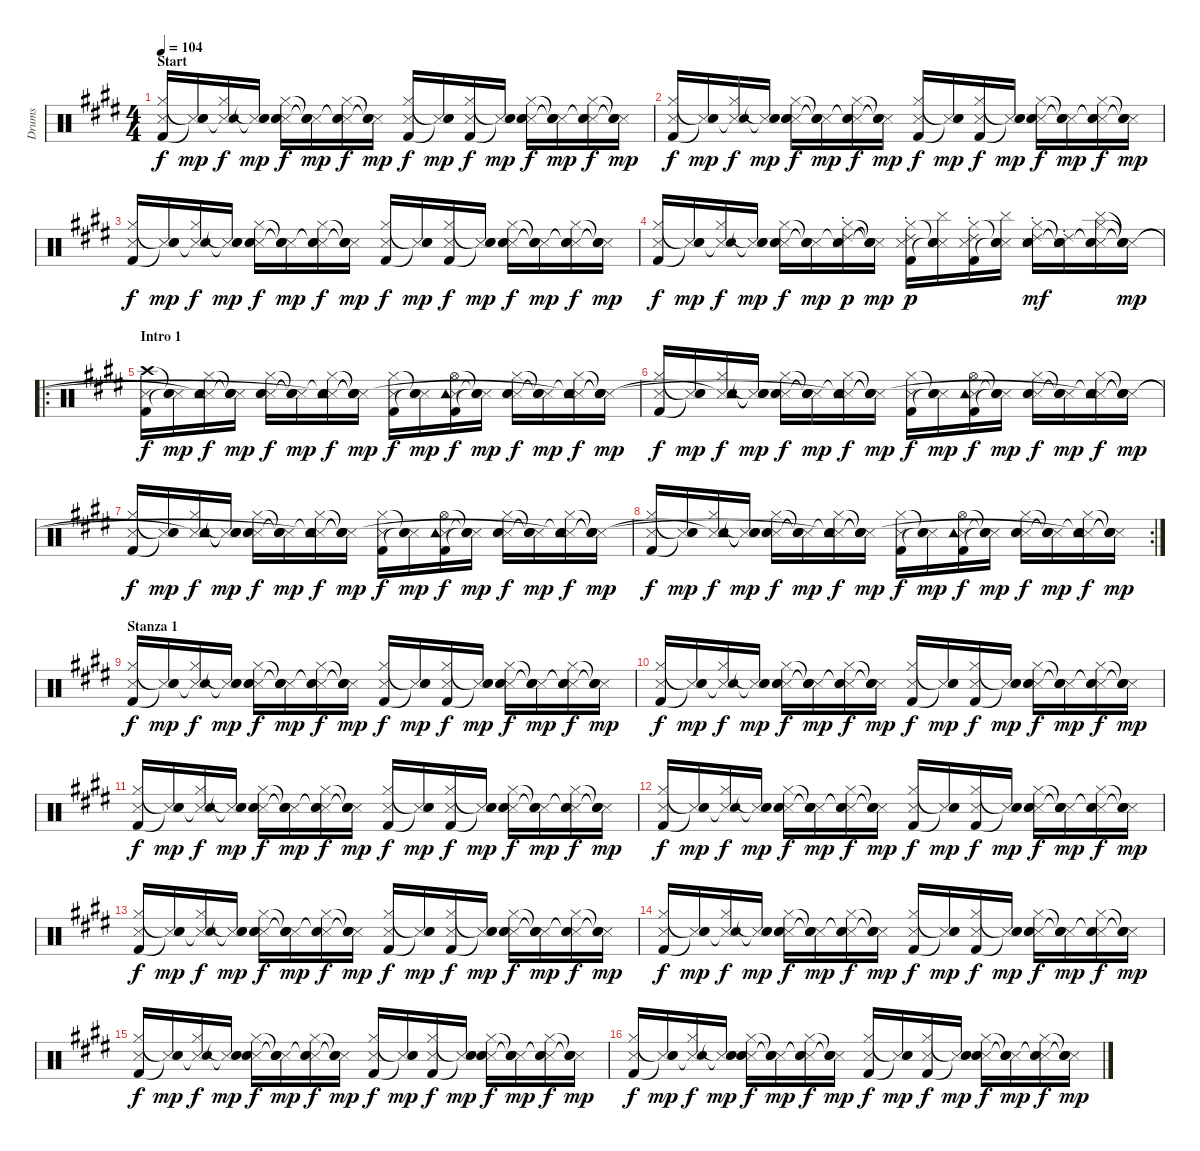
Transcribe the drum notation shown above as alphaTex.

\track ("Drums" "Drums") {instrument percussion}
\staff {score}
\articulation defaults
\ts (4 4)
\section ("" "Start")
\tempo 104
\clef neutral
\ks e
("Metronome (hit)" "Hi-Hat (closed)" "Kick (hit) 2").16{dy f} ("Metronome (hit)" "Snare (hit)"{t} "Snare (hit)"{t}).16{dy mp} ("Metronome (hit)" "Hi-Hat (closed)" "Snare (hit)"{t}).16{dy f} ("Metronome (hit)" "Snare (hit)"{t} "Snare (hit)"{t}).16{dy mp} ("Metronome (hit)" "Hi-Hat (closed)" "Hand Clap (hit)" "Electric Snare (hit)").16{dy f} ("Metronome (hit)" "Snare (hit)"{t} "Snare (hit)"{t} "Snare (hit)"{t}).16{dy mp} ("Metronome (hit)" "Hi-Hat (closed)" "Snare (hit)"{t} "Snare (hit)"{t}).16{dy f} ("Metronome (hit)" "Snare (hit)"{t} "Snare (hit)"{t} "Snare (hit)"{t}).16{dy mp} ("Metronome (hit)" "Hi-Hat (closed)" "Kick (hit) 2").16{dy f} ("Metronome (hit)" "Snare (hit)"{t} "Snare (hit)"{t}).16{dy mp} ("Metronome (hit)" "Hi-Hat (closed)" "Kick (hit) 2").16{dy f} ("Metronome (hit)" "Snare (hit)"{t} "Snare (hit)"{t}).16{dy mp} ("Metronome (hit)" "Hi-Hat (closed)" "Hand Clap (hit)" "Electric Snare (hit)").16{dy f} ("Metronome (hit)" "Snare (hit)"{t} "Snare (hit)"{t} "Snare (hit)"{t}).16{dy mp} ("Metronome (hit)" "Hi-Hat (closed)" "Snare (hit)"{t} "Snare (hit)"{t}).16{dy f} ("Metronome (hit)" "Snare (hit)"{t} "Snare (hit)"{t} "Snare (hit)"{t}).16{dy mp} |
("Metronome (hit)" "Hi-Hat (closed)" "Kick (hit) 2").16{dy f} ("Metronome (hit)" "Snare (hit)"{t} "Snare (hit)"{t}).16{dy mp} ("Metronome (hit)" "Hi-Hat (closed)" "Snare (hit)"{t}).16{dy f} ("Metronome (hit)" "Snare (hit)"{t} "Snare (hit)"{t}).16{dy mp} ("Metronome (hit)" "Hi-Hat (closed)" "Hand Clap (hit)" "Electric Snare (hit)").16{dy f} ("Metronome (hit)" "Snare (hit)"{t} "Snare (hit)"{t} "Snare (hit)"{t}).16{dy mp} ("Metronome (hit)" "Hi-Hat (closed)" "Snare (hit)"{t} "Snare (hit)"{t}).16{dy f} ("Metronome (hit)" "Snare (hit)"{t} "Snare (hit)"{t} "Snare (hit)"{t}).16{dy mp} ("Metronome (hit)" "Hi-Hat (closed)" "Kick (hit) 2").16{dy f} ("Metronome (hit)" "Snare (hit)"{t} "Snare (hit)"{t}).16{dy mp} ("Metronome (hit)" "Hi-Hat (closed)" "Kick (hit) 2").16{dy f} ("Metronome (hit)" "Snare (hit)"{t} "Snare (hit)"{t}).16{dy mp} ("Metronome (hit)" "Hi-Hat (closed)" "Hand Clap (hit)" "Electric Snare (hit)").16{dy f} ("Metronome (hit)" "Snare (hit)"{t} "Snare (hit)"{t} "Snare (hit)"{t}).16{dy mp} ("Metronome (hit)" "Hi-Hat (closed)" "Snare (hit)"{t} "Snare (hit)"{t}).16{dy f} ("Metronome (hit)" "Snare (hit)"{t} "Snare (hit)"{t} "Snare (hit)"{t}).16{dy mp} |
("Metronome (hit)" "Hi-Hat (closed)" "Kick (hit) 2").16{dy f} ("Metronome (hit)" "Snare (hit)"{t} "Snare (hit)"{t}).16{dy mp} ("Metronome (hit)" "Hi-Hat (closed)" "Snare (hit)"{t}).16{dy f} ("Metronome (hit)" "Snare (hit)"{t} "Snare (hit)"{t}).16{dy mp} ("Metronome (hit)" "Hi-Hat (closed)" "Hand Clap (hit)" "Electric Snare (hit)").16{dy f} ("Metronome (hit)" "Snare (hit)"{t} "Snare (hit)"{t} "Snare (hit)"{t}).16{dy mp} ("Metronome (hit)" "Hi-Hat (closed)" "Snare (hit)"{t} "Snare (hit)"{t}).16{dy f} ("Metronome (hit)" "Snare (hit)"{t} "Snare (hit)"{t} "Snare (hit)"{t}).16{dy mp} ("Metronome (hit)" "Hi-Hat (closed)" "Kick (hit) 2").16{dy f} ("Metronome (hit)" "Snare (hit)"{t} "Snare (hit)"{t}).16{dy mp} ("Metronome (hit)" "Hi-Hat (closed)" "Kick (hit) 2").16{dy f} ("Metronome (hit)" "Snare (hit)"{t} "Snare (hit)"{t}).16{dy mp} ("Metronome (hit)" "Hi-Hat (closed)" "Hand Clap (hit)" "Electric Snare (hit)").16{dy f} ("Metronome (hit)" "Snare (hit)"{t} "Snare (hit)"{t} "Snare (hit)"{t}).16{dy mp} ("Metronome (hit)" "Hi-Hat (closed)" "Snare (hit)"{t} "Snare (hit)"{t}).16{dy f} ("Metronome (hit)" "Snare (hit)"{t} "Snare (hit)"{t} "Snare (hit)"{t}).16{dy mp} |
("Metronome (hit)" "Hi-Hat (closed)" "Kick (hit) 2").16{dy f} ("Metronome (hit)" "Snare (hit)"{t} "Snare (hit)"{t}).16{dy mp} ("Metronome (hit)" "Hi-Hat (closed)" "Snare (hit)"{t}).16{dy f} ("Metronome (hit)" "Snare (hit)"{t} "Snare (hit)"{t}).16{dy mp} ("Metronome (hit)" "Hi-Hat (closed)" "Hand Clap (hit)" "Electric Snare (hit)").16{dy f} ("Metronome (hit)" "Snare (hit)"{t} "Snare (hit)"{t} "Snare (hit)"{t}).16{dy mp} ("Metronome (hit)" "Hi-Hat (closed)" "Ride (choke) 2" "Snare (hit)"{t} "Snare (hit)").16{dy p} ("Metronome (hit)" "Snare (hit)"{t} "Snare (hit)"{t} "Snare (hit)"{t} "Snare (hit)"{t}).16{dy mp} ("Metronome (hit)" "Hi-Hat (closed)" "Ride (choke) 2" "Kick (hit) 2").16{dy p} ("Metronome (hit)" "Snare (hit)"{t} "Cymbal (hit)" "Snare (hit)"{t}).16 ("Metronome (hit)" "Hi-Hat (closed)" "Ride (choke) 2" "Kick (hit) 2").16 ("Metronome (hit)" "Snare (hit)"{t} "Cymbal (hit)" "Snare (hit)"{t}).16 ("Metronome (hit)" "Hi-Hat (closed)" "Ride (choke) 2" "Hand Clap (hit)" "Electric Snare (hit)").16{dy mf} ("Metronome (hit)" "Snare (hit)"{t} "Ride (choke) 2" "Snare (hit)"{t} "Snare (hit)"{t}).16 ("Metronome (hit)" "Hi-Hat (closed)" "Cymbal (hit)" "Snare (hit)"{t} "Snare (hit)"{t}).16 ("Metronome (hit)" "Snare (hit)"{t} "Snare (hit)"{t} "Snare (hit)"{t} "Snare (hit)"{t}).16{dy mp} |
\ro
\section ("" "Intro 1")
("Metronome (hit)" "Crash high (hit)" "Kick (hit) 2").16{dy f} ("Metronome (hit)" "Snare (hit)"{t} "Snare (hit)"{t}).16{dy mp} ("Metronome (hit)" "Hi-Hat (closed)" "Tambourine (hit)" "Snare (hit)"{t}).16{dy f} ("Metronome (hit)" "Snare (hit)"{t} "Snare (hit)"{t} "Snare (hit)"{t}).16{dy mp} ("Metronome (hit)" "Hi-Hat (closed)" "Hand Clap (hit)" "Electric Snare (hit)").16{dy f} ("Metronome (hit)" "Snare (hit)"{t} "Snare (hit)"{t} "Snare (hit)"{t}).16{dy mp} ("Metronome (hit)" "Hi-Hat (closed)" "Tambourine (hit)" "Snare (hit)"{t} "Snare (hit)"{t}).16{dy f} ("Metronome (hit)" "Snare (hit)"{t} "Snare (hit)"{t} "Snare (hit)"{t} "Snare (hit)"{t}).16{dy mp} ("Metronome (hit)" "Hi-Hat (closed)" "Kick (hit) 2").16{dy f} ("Metronome (hit)" "Snare (hit)"{t} "Snare (hit)"{t}).16{dy mp} ("Metronome (hit)" "Hi-Hat (open)" "Tambourine (hit)" "Kick (hit) 2").16{dy f} ("Metronome (hit)" "Snare (hit)"{t} "Snare (hit)"{t} "Snare (hit)"{t}).16{dy mp} ("Metronome (hit)" "Hi-Hat (closed)" "Hand Clap (hit)" "Electric Snare (hit)").16{dy f} ("Metronome (hit)" "Snare (hit)"{t} "Snare (hit)"{t} "Snare (hit)"{t}).16{dy mp} ("Metronome (hit)" "Hi-Hat (closed)" "Tambourine (hit)" "Snare (hit)"{t} "Snare (hit)"{t}).16{dy f} ("Metronome (hit)" "Snare (hit)"{t} "Snare (hit)"{t} "Snare (hit)"{t} "Snare (hit)"{t}).16{dy mp} |
("Metronome (hit)" "Hi-Hat (closed)" "Kick (hit) 2").16{dy f} ("Metronome (hit)" "Snare (hit)"{t} "Snare (hit)"{t}).16{dy mp} ("Metronome (hit)" "Hi-Hat (closed)" "Tambourine (hit)" "Snare (hit)"{t}).16{dy f} ("Metronome (hit)" "Snare (hit)"{t} "Snare (hit)"{t} "Snare (hit)"{t}).16{dy mp} ("Metronome (hit)" "Hi-Hat (closed)" "Hand Clap (hit)" "Electric Snare (hit)").16{dy f} ("Metronome (hit)" "Snare (hit)"{t} "Snare (hit)"{t} "Snare (hit)"{t}).16{dy mp} ("Metronome (hit)" "Hi-Hat (closed)" "Tambourine (hit)" "Snare (hit)"{t} "Snare (hit)"{t}).16{dy f} ("Metronome (hit)" "Snare (hit)"{t} "Snare (hit)"{t} "Snare (hit)"{t} "Snare (hit)"{t}).16{dy mp} ("Metronome (hit)" "Hi-Hat (closed)" "Kick (hit) 2").16{dy f} ("Metronome (hit)" "Snare (hit)"{t} "Snare (hit)"{t}).16{dy mp} ("Metronome (hit)" "Hi-Hat (open)" "Tambourine (hit)" "Kick (hit) 2").16{dy f} ("Metronome (hit)" "Snare (hit)"{t} "Snare (hit)"{t} "Snare (hit)"{t}).16{dy mp} ("Metronome (hit)" "Hi-Hat (closed)" "Hand Clap (hit)" "Electric Snare (hit)").16{dy f} ("Metronome (hit)" "Snare (hit)"{t} "Snare (hit)"{t} "Snare (hit)"{t}).16{dy mp} ("Metronome (hit)" "Hi-Hat (closed)" "Tambourine (hit)" "Snare (hit)"{t} "Snare (hit)"{t}).16{dy f} ("Metronome (hit)" "Snare (hit)"{t} "Snare (hit)"{t} "Snare (hit)"{t} "Snare (hit)"{t}).16{dy mp} |
("Metronome (hit)" "Hi-Hat (closed)" "Kick (hit) 2").16{dy f} ("Metronome (hit)" "Snare (hit)"{t} "Snare (hit)"{t}).16{dy mp} ("Metronome (hit)" "Hi-Hat (closed)" "Tambourine (hit)" "Snare (hit)"{t}).16{dy f} ("Metronome (hit)" "Snare (hit)"{t} "Snare (hit)"{t} "Snare (hit)"{t}).16{dy mp} ("Metronome (hit)" "Hi-Hat (closed)" "Hand Clap (hit)" "Electric Snare (hit)").16{dy f} ("Metronome (hit)" "Snare (hit)"{t} "Snare (hit)"{t} "Snare (hit)"{t}).16{dy mp} ("Metronome (hit)" "Hi-Hat (closed)" "Tambourine (hit)" "Snare (hit)"{t} "Snare (hit)"{t}).16{dy f} ("Metronome (hit)" "Snare (hit)"{t} "Snare (hit)"{t} "Snare (hit)"{t} "Snare (hit)"{t}).16{dy mp} ("Metronome (hit)" "Hi-Hat (closed)" "Kick (hit) 2").16{dy f} ("Metronome (hit)" "Snare (hit)"{t} "Snare (hit)"{t}).16{dy mp} ("Metronome (hit)" "Hi-Hat (open)" "Tambourine (hit)" "Kick (hit) 2").16{dy f} ("Metronome (hit)" "Snare (hit)"{t} "Snare (hit)"{t} "Snare (hit)"{t}).16{dy mp} ("Metronome (hit)" "Hi-Hat (closed)" "Hand Clap (hit)" "Electric Snare (hit)").16{dy f} ("Metronome (hit)" "Snare (hit)"{t} "Snare (hit)"{t} "Snare (hit)"{t}).16{dy mp} ("Metronome (hit)" "Hi-Hat (closed)" "Tambourine (hit)" "Snare (hit)"{t} "Snare (hit)"{t}).16{dy f} ("Metronome (hit)" "Snare (hit)"{t} "Snare (hit)"{t} "Snare (hit)"{t} "Snare (hit)"{t}).16{dy mp} |
\rc 2
("Metronome (hit)" "Hi-Hat (closed)" "Kick (hit) 2").16{dy f} ("Metronome (hit)" "Snare (hit)"{t} "Snare (hit)"{t}).16{dy mp} ("Metronome (hit)" "Hi-Hat (closed)" "Tambourine (hit)" "Snare (hit)"{t}).16{dy f} ("Metronome (hit)" "Snare (hit)"{t} "Snare (hit)"{t} "Snare (hit)"{t}).16{dy mp} ("Metronome (hit)" "Hi-Hat (closed)" "Hand Clap (hit)" "Electric Snare (hit)").16{dy f} ("Metronome (hit)" "Snare (hit)"{t} "Snare (hit)"{t} "Snare (hit)"{t}).16{dy mp} ("Metronome (hit)" "Hi-Hat (closed)" "Tambourine (hit)" "Snare (hit)"{t} "Snare (hit)"{t}).16{dy f} ("Metronome (hit)" "Snare (hit)"{t} "Snare (hit)"{t} "Snare (hit)"{t} "Snare (hit)"{t}).16{dy mp} ("Metronome (hit)" "Hi-Hat (closed)" "Kick (hit) 2").16{dy f} ("Metronome (hit)" "Snare (hit)"{t} "Snare (hit)"{t}).16{dy mp} ("Metronome (hit)" "Hi-Hat (open)" "Tambourine (hit)" "Kick (hit) 2").16{dy f} ("Metronome (hit)" "Snare (hit)"{t} "Snare (hit)"{t} "Snare (hit)"{t}).16{dy mp} ("Metronome (hit)" "Hi-Hat (closed)" "Hand Clap (hit)" "Electric Snare (hit)").16{dy f} ("Metronome (hit)" "Snare (hit)"{t} "Snare (hit)"{t} "Snare (hit)"{t}).16{dy mp} ("Metronome (hit)" "Hi-Hat (closed)" "Tambourine (hit)" "Snare (hit)"{t} "Snare (hit)"{t}).16{dy f} ("Metronome (hit)" "Snare (hit)"{t} "Snare (hit)"{t} "Snare (hit)"{t} "Snare (hit)"{t}).16{dy mp} |
\section ("" "Stanza 1")
("Metronome (hit)" "Hi-Hat (closed)" "Kick (hit) 2").16{dy f} ("Metronome (hit)" "Snare (hit)"{t} "Snare (hit)"{t}).16{dy mp} ("Metronome (hit)" "Hi-Hat (closed)" "Snare (hit)"{t}).16{dy f} ("Metronome (hit)" "Snare (hit)"{t} "Snare (hit)"{t}).16{dy mp} ("Metronome (hit)" "Hi-Hat (closed)" "Hand Clap (hit)" "Electric Snare (hit)").16{dy f} ("Metronome (hit)" "Snare (hit)"{t} "Snare (hit)"{t} "Snare (hit)"{t}).16{dy mp} ("Metronome (hit)" "Hi-Hat (closed)" "Snare (hit)"{t} "Snare (hit)"{t}).16{dy f} ("Metronome (hit)" "Snare (hit)"{t} "Snare (hit)"{t} "Snare (hit)"{t}).16{dy mp} ("Metronome (hit)" "Hi-Hat (closed)" "Kick (hit) 2").16{dy f} ("Metronome (hit)" "Snare (hit)"{t} "Snare (hit)"{t}).16{dy mp} ("Metronome (hit)" "Hi-Hat (closed)" "Kick (hit) 2").16{dy f} ("Metronome (hit)" "Snare (hit)"{t} "Snare (hit)"{t}).16{dy mp} ("Metronome (hit)" "Hi-Hat (closed)" "Hand Clap (hit)" "Electric Snare (hit)").16{dy f} ("Metronome (hit)" "Snare (hit)"{t} "Snare (hit)"{t} "Snare (hit)"{t}).16{dy mp} ("Metronome (hit)" "Hi-Hat (closed)" "Snare (hit)"{t} "Snare (hit)"{t}).16{dy f} ("Metronome (hit)" "Snare (hit)"{t} "Snare (hit)"{t} "Snare (hit)"{t}).16{dy mp} |
("Metronome (hit)" "Hi-Hat (closed)" "Kick (hit) 2").16{dy f} ("Metronome (hit)" "Snare (hit)"{t} "Snare (hit)"{t}).16{dy mp} ("Metronome (hit)" "Hi-Hat (closed)" "Snare (hit)"{t}).16{dy f} ("Metronome (hit)" "Snare (hit)"{t} "Snare (hit)"{t}).16{dy mp} ("Metronome (hit)" "Hi-Hat (closed)" "Hand Clap (hit)" "Electric Snare (hit)").16{dy f} ("Metronome (hit)" "Snare (hit)"{t} "Snare (hit)"{t} "Snare (hit)"{t}).16{dy mp} ("Metronome (hit)" "Hi-Hat (closed)" "Snare (hit)"{t} "Snare (hit)"{t}).16{dy f} ("Metronome (hit)" "Snare (hit)"{t} "Snare (hit)"{t} "Snare (hit)"{t}).16{dy mp} ("Metronome (hit)" "Hi-Hat (closed)" "Kick (hit) 2").16{dy f} ("Metronome (hit)" "Snare (hit)"{t} "Snare (hit)"{t}).16{dy mp} ("Metronome (hit)" "Hi-Hat (closed)" "Kick (hit) 2").16{dy f} ("Metronome (hit)" "Snare (hit)"{t} "Snare (hit)"{t}).16{dy mp} ("Metronome (hit)" "Hi-Hat (closed)" "Hand Clap (hit)" "Electric Snare (hit)").16{dy f} ("Metronome (hit)" "Snare (hit)"{t} "Snare (hit)"{t} "Snare (hit)"{t}).16{dy mp} ("Metronome (hit)" "Hi-Hat (closed)" "Snare (hit)"{t} "Snare (hit)"{t}).16{dy f} ("Metronome (hit)" "Snare (hit)"{t} "Snare (hit)"{t} "Snare (hit)"{t}).16{dy mp} |
("Metronome (hit)" "Hi-Hat (closed)" "Kick (hit) 2").16{dy f} ("Metronome (hit)" "Snare (hit)"{t} "Snare (hit)"{t}).16{dy mp} ("Metronome (hit)" "Hi-Hat (closed)" "Snare (hit)"{t}).16{dy f} ("Metronome (hit)" "Snare (hit)"{t} "Snare (hit)"{t}).16{dy mp} ("Metronome (hit)" "Hi-Hat (closed)" "Hand Clap (hit)" "Electric Snare (hit)").16{dy f} ("Metronome (hit)" "Snare (hit)"{t} "Snare (hit)"{t} "Snare (hit)"{t}).16{dy mp} ("Metronome (hit)" "Hi-Hat (closed)" "Snare (hit)"{t} "Snare (hit)"{t}).16{dy f} ("Metronome (hit)" "Snare (hit)"{t} "Snare (hit)"{t} "Snare (hit)"{t}).16{dy mp} ("Metronome (hit)" "Hi-Hat (closed)" "Kick (hit) 2").16{dy f} ("Metronome (hit)" "Snare (hit)"{t} "Snare (hit)"{t}).16{dy mp} ("Metronome (hit)" "Hi-Hat (closed)" "Kick (hit) 2").16{dy f} ("Metronome (hit)" "Snare (hit)"{t} "Snare (hit)"{t}).16{dy mp} ("Metronome (hit)" "Hi-Hat (closed)" "Hand Clap (hit)" "Electric Snare (hit)").16{dy f} ("Metronome (hit)" "Snare (hit)"{t} "Snare (hit)"{t} "Snare (hit)"{t}).16{dy mp} ("Metronome (hit)" "Hi-Hat (closed)" "Snare (hit)"{t} "Snare (hit)"{t}).16{dy f} ("Metronome (hit)" "Snare (hit)"{t} "Snare (hit)"{t} "Snare (hit)"{t}).16{dy mp} |
("Metronome (hit)" "Hi-Hat (closed)" "Kick (hit) 2").16{dy f} ("Metronome (hit)" "Snare (hit)"{t} "Snare (hit)"{t}).16{dy mp} ("Metronome (hit)" "Hi-Hat (closed)" "Snare (hit)"{t}).16{dy f} ("Metronome (hit)" "Snare (hit)"{t} "Snare (hit)"{t}).16{dy mp} ("Metronome (hit)" "Hi-Hat (closed)" "Hand Clap (hit)" "Electric Snare (hit)").16{dy f} ("Metronome (hit)" "Snare (hit)"{t} "Snare (hit)"{t} "Snare (hit)"{t}).16{dy mp} ("Metronome (hit)" "Hi-Hat (closed)" "Snare (hit)"{t} "Snare (hit)"{t}).16{dy f} ("Metronome (hit)" "Snare (hit)"{t} "Snare (hit)"{t} "Snare (hit)"{t}).16{dy mp} ("Metronome (hit)" "Hi-Hat (closed)" "Kick (hit) 2").16{dy f} ("Metronome (hit)" "Snare (hit)"{t} "Snare (hit)"{t}).16{dy mp} ("Metronome (hit)" "Hi-Hat (closed)" "Kick (hit) 2").16{dy f} ("Metronome (hit)" "Snare (hit)"{t} "Snare (hit)"{t}).16{dy mp} ("Metronome (hit)" "Hi-Hat (closed)" "Hand Clap (hit)" "Electric Snare (hit)").16{dy f} ("Metronome (hit)" "Snare (hit)"{t} "Snare (hit)"{t} "Snare (hit)"{t}).16{dy mp} ("Metronome (hit)" "Hi-Hat (closed)" "Snare (hit)"{t} "Snare (hit)"{t}).16{dy f} ("Metronome (hit)" "Snare (hit)"{t} "Snare (hit)"{t} "Snare (hit)"{t}).16{dy mp} |
("Metronome (hit)" "Hi-Hat (closed)" "Kick (hit) 2").16{dy f} ("Metronome (hit)" "Snare (hit)"{t} "Snare (hit)"{t}).16{dy mp} ("Metronome (hit)" "Hi-Hat (closed)" "Snare (hit)"{t}).16{dy f} ("Metronome (hit)" "Snare (hit)"{t} "Snare (hit)"{t}).16{dy mp} ("Metronome (hit)" "Hi-Hat (closed)" "Hand Clap (hit)" "Electric Snare (hit)").16{dy f} ("Metronome (hit)" "Snare (hit)"{t} "Snare (hit)"{t} "Snare (hit)"{t}).16{dy mp} ("Metronome (hit)" "Hi-Hat (closed)" "Snare (hit)"{t} "Snare (hit)"{t}).16{dy f} ("Metronome (hit)" "Snare (hit)"{t} "Snare (hit)"{t} "Snare (hit)"{t}).16{dy mp} ("Metronome (hit)" "Hi-Hat (closed)" "Kick (hit) 2").16{dy f} ("Metronome (hit)" "Snare (hit)"{t} "Snare (hit)"{t}).16{dy mp} ("Metronome (hit)" "Hi-Hat (closed)" "Kick (hit) 2").16{dy f} ("Metronome (hit)" "Snare (hit)"{t} "Snare (hit)"{t}).16{dy mp} ("Metronome (hit)" "Hi-Hat (closed)" "Hand Clap (hit)" "Electric Snare (hit)").16{dy f} ("Metronome (hit)" "Snare (hit)"{t} "Snare (hit)"{t} "Snare (hit)"{t}).16{dy mp} ("Metronome (hit)" "Hi-Hat (closed)" "Snare (hit)"{t} "Snare (hit)"{t}).16{dy f} ("Metronome (hit)" "Snare (hit)"{t} "Snare (hit)"{t} "Snare (hit)"{t}).16{dy mp} |
("Metronome (hit)" "Hi-Hat (closed)" "Kick (hit) 2").16{dy f} ("Metronome (hit)" "Snare (hit)"{t} "Snare (hit)"{t}).16{dy mp} ("Metronome (hit)" "Hi-Hat (closed)" "Snare (hit)"{t}).16{dy f} ("Metronome (hit)" "Snare (hit)"{t} "Snare (hit)"{t}).16{dy mp} ("Metronome (hit)" "Hi-Hat (closed)" "Hand Clap (hit)" "Electric Snare (hit)").16{dy f} ("Metronome (hit)" "Snare (hit)"{t} "Snare (hit)"{t} "Snare (hit)"{t}).16{dy mp} ("Metronome (hit)" "Hi-Hat (closed)" "Snare (hit)"{t} "Snare (hit)"{t}).16{dy f} ("Metronome (hit)" "Snare (hit)"{t} "Snare (hit)"{t} "Snare (hit)"{t}).16{dy mp} ("Metronome (hit)" "Hi-Hat (closed)" "Kick (hit) 2").16{dy f} ("Metronome (hit)" "Snare (hit)"{t} "Snare (hit)"{t}).16{dy mp} ("Metronome (hit)" "Hi-Hat (closed)" "Kick (hit) 2").16{dy f} ("Metronome (hit)" "Snare (hit)"{t} "Snare (hit)"{t}).16{dy mp} ("Metronome (hit)" "Hi-Hat (closed)" "Hand Clap (hit)" "Electric Snare (hit)").16{dy f} ("Metronome (hit)" "Snare (hit)"{t} "Snare (hit)"{t} "Snare (hit)"{t}).16{dy mp} ("Metronome (hit)" "Hi-Hat (closed)" "Snare (hit)"{t} "Snare (hit)"{t}).16{dy f} ("Metronome (hit)" "Snare (hit)"{t} "Snare (hit)"{t} "Snare (hit)"{t}).16{dy mp} |
("Metronome (hit)" "Hi-Hat (closed)" "Kick (hit) 2").16{dy f} ("Metronome (hit)" "Snare (hit)"{t} "Snare (hit)"{t}).16{dy mp} ("Metronome (hit)" "Hi-Hat (closed)" "Snare (hit)"{t}).16{dy f} ("Metronome (hit)" "Snare (hit)"{t} "Snare (hit)"{t}).16{dy mp} ("Metronome (hit)" "Hi-Hat (closed)" "Hand Clap (hit)" "Electric Snare (hit)").16{dy f} ("Metronome (hit)" "Snare (hit)"{t} "Snare (hit)"{t} "Snare (hit)"{t}).16{dy mp} ("Metronome (hit)" "Hi-Hat (closed)" "Snare (hit)"{t} "Snare (hit)"{t}).16{dy f} ("Metronome (hit)" "Snare (hit)"{t} "Snare (hit)"{t} "Snare (hit)"{t}).16{dy mp} ("Metronome (hit)" "Hi-Hat (closed)" "Kick (hit) 2").16{dy f} ("Metronome (hit)" "Snare (hit)"{t} "Snare (hit)"{t}).16{dy mp} ("Metronome (hit)" "Hi-Hat (closed)" "Kick (hit) 2").16{dy f} ("Metronome (hit)" "Snare (hit)"{t} "Snare (hit)"{t}).16{dy mp} ("Metronome (hit)" "Hi-Hat (closed)" "Hand Clap (hit)" "Electric Snare (hit)").16{dy f} ("Metronome (hit)" "Snare (hit)"{t} "Snare (hit)"{t} "Snare (hit)"{t}).16{dy mp} ("Metronome (hit)" "Hi-Hat (closed)" "Snare (hit)"{t} "Snare (hit)"{t}).16{dy f} ("Metronome (hit)" "Snare (hit)"{t} "Snare (hit)"{t} "Snare (hit)"{t}).16{dy mp} |
("Metronome (hit)" "Hi-Hat (closed)" "Kick (hit) 2").16{dy f} ("Metronome (hit)" "Snare (hit)"{t} "Snare (hit)"{t}).16{dy mp} ("Metronome (hit)" "Hi-Hat (closed)" "Snare (hit)"{t}).16{dy f} ("Metronome (hit)" "Snare (hit)"{t} "Snare (hit)"{t}).16{dy mp} ("Metronome (hit)" "Hi-Hat (closed)" "Hand Clap (hit)" "Electric Snare (hit)").16{dy f} ("Metronome (hit)" "Snare (hit)"{t} "Snare (hit)"{t} "Snare (hit)"{t}).16{dy mp} ("Metronome (hit)" "Hi-Hat (closed)" "Snare (hit)"{t} "Snare (hit)"{t}).16{dy f} ("Metronome (hit)" "Snare (hit)"{t} "Snare (hit)"{t} "Snare (hit)"{t}).16{dy mp} ("Metronome (hit)" "Hi-Hat (closed)" "Kick (hit) 2").16{dy f} ("Metronome (hit)" "Snare (hit)"{t} "Snare (hit)"{t}).16{dy mp} ("Metronome (hit)" "Hi-Hat (closed)" "Kick (hit) 2").16{dy f} ("Metronome (hit)" "Snare (hit)"{t} "Snare (hit)"{t}).16{dy mp} ("Metronome (hit)" "Hi-Hat (closed)" "Hand Clap (hit)" "Electric Snare (hit)").16{dy f} ("Metronome (hit)" "Snare (hit)"{t} "Snare (hit)"{t} "Snare (hit)"{t}).16{dy mp} ("Metronome (hit)" "Hi-Hat (closed)" "Snare (hit)"{t} "Snare (hit)"{t}).16{dy f} ("Metronome (hit)" "Snare (hit)"{t} "Snare (hit)"{t} "Snare (hit)"{t}).16{dy mp}
